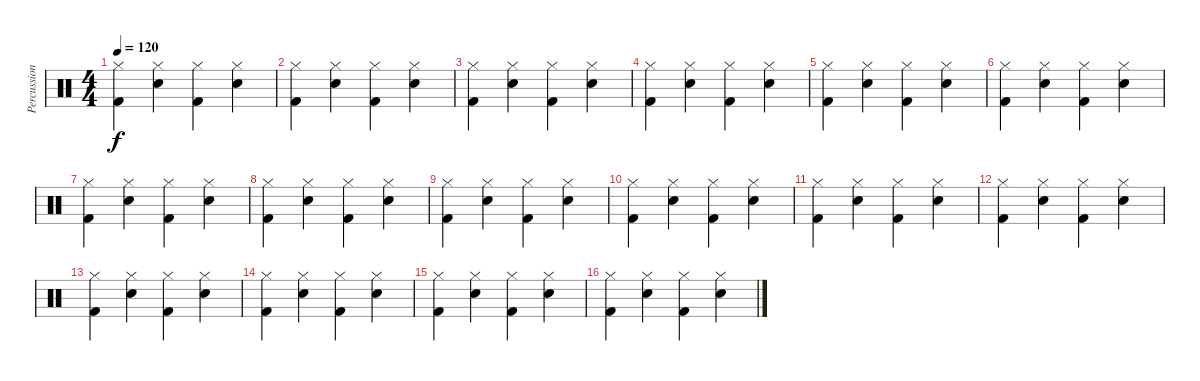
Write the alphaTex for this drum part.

\track ("Percussion" "Percussion") {instrument percussion}
\staff {score}
\articulation defaults
\ts (4 4)
\tempo 120
\clef neutral
\ks c
("Hi-Hat (closed)" "Kick (hit) 2").4{dy f} ("Hi-Hat (closed)" "Electric Snare (hit)").4 ("Hi-Hat (closed)" "Kick (hit) 2").4 ("Hi-Hat (closed)" "Electric Snare (hit)").4 |
("Hi-Hat (closed)" "Kick (hit) 2").4 ("Hi-Hat (closed)" "Electric Snare (hit)").4 ("Hi-Hat (closed)" "Kick (hit) 2").4 ("Hi-Hat (closed)" "Electric Snare (hit)").4 |
("Hi-Hat (closed)" "Kick (hit) 2").4 ("Hi-Hat (closed)" "Electric Snare (hit)").4 ("Hi-Hat (closed)" "Kick (hit) 2").4 ("Hi-Hat (closed)" "Electric Snare (hit)").4 |
("Hi-Hat (closed)" "Kick (hit) 2").4 ("Hi-Hat (closed)" "Electric Snare (hit)").4 ("Hi-Hat (closed)" "Kick (hit) 2").4 ("Hi-Hat (closed)" "Electric Snare (hit)").4 |
("Hi-Hat (closed)" "Kick (hit) 2").4 ("Hi-Hat (closed)" "Electric Snare (hit)").4 ("Hi-Hat (closed)" "Kick (hit) 2").4 ("Hi-Hat (closed)" "Electric Snare (hit)").4 |
("Hi-Hat (closed)" "Kick (hit) 2").4 ("Hi-Hat (closed)" "Electric Snare (hit)").4 ("Hi-Hat (closed)" "Kick (hit) 2").4 ("Hi-Hat (closed)" "Electric Snare (hit)").4 |
("Hi-Hat (closed)" "Kick (hit) 2").4 ("Hi-Hat (closed)" "Electric Snare (hit)").4 ("Hi-Hat (closed)" "Kick (hit) 2").4 ("Hi-Hat (closed)" "Electric Snare (hit)").4 |
("Hi-Hat (closed)" "Kick (hit) 2").4 ("Hi-Hat (closed)" "Electric Snare (hit)").4 ("Hi-Hat (closed)" "Kick (hit) 2").4 ("Hi-Hat (closed)" "Electric Snare (hit)").4 |
("Hi-Hat (closed)" "Kick (hit) 2").4 ("Hi-Hat (closed)" "Electric Snare (hit)").4 ("Hi-Hat (closed)" "Kick (hit) 2").4 ("Hi-Hat (closed)" "Electric Snare (hit)").4 |
("Hi-Hat (closed)" "Kick (hit) 2").4 ("Hi-Hat (closed)" "Electric Snare (hit)").4 ("Hi-Hat (closed)" "Kick (hit) 2").4 ("Hi-Hat (closed)" "Electric Snare (hit)").4 |
("Hi-Hat (closed)" "Kick (hit) 2").4 ("Hi-Hat (closed)" "Electric Snare (hit)").4 ("Hi-Hat (closed)" "Kick (hit) 2").4 ("Hi-Hat (closed)" "Electric Snare (hit)").4 |
("Hi-Hat (closed)" "Kick (hit) 2").4 ("Hi-Hat (closed)" "Electric Snare (hit)").4 ("Hi-Hat (closed)" "Kick (hit) 2").4 ("Hi-Hat (closed)" "Electric Snare (hit)").4 |
("Hi-Hat (closed)" "Kick (hit) 2").4 ("Hi-Hat (closed)" "Electric Snare (hit)").4 ("Hi-Hat (closed)" "Kick (hit) 2").4 ("Hi-Hat (closed)" "Electric Snare (hit)").4 |
("Hi-Hat (closed)" "Kick (hit) 2").4 ("Hi-Hat (closed)" "Electric Snare (hit)").4 ("Hi-Hat (closed)" "Kick (hit) 2").4 ("Hi-Hat (closed)" "Electric Snare (hit)").4 |
("Hi-Hat (closed)" "Kick (hit) 2").4 ("Hi-Hat (closed)" "Electric Snare (hit)").4 ("Hi-Hat (closed)" "Kick (hit) 2").4 ("Hi-Hat (closed)" "Electric Snare (hit)").4 |
("Hi-Hat (closed)" "Kick (hit) 2").4 ("Hi-Hat (closed)" "Electric Snare (hit)").4 ("Hi-Hat (closed)" "Kick (hit) 2").4 ("Hi-Hat (closed)" "Electric Snare (hit)").4
